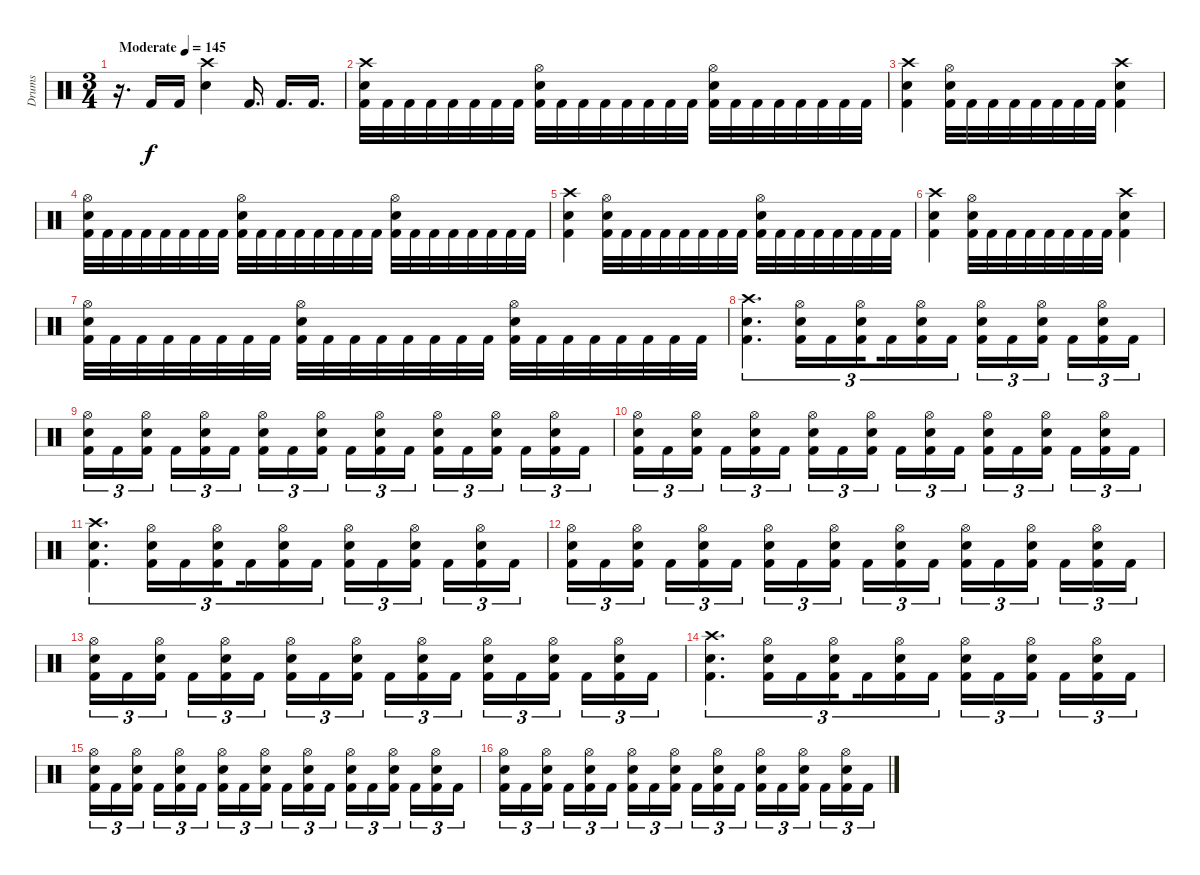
\track ("Drums" "Drums") {instrument percussion}
\staff {score}
\articulation defaults
\ts (3 4)
\tempo (145 "Moderate")
\clef neutral
\ks c
r.16{d dy f} "Kick (hit) 2".16 "Kick (hit) 2".16 ("Snare (hit) 2" "Crash high (hit)").4 "Kick (hit) 2".16{d} "Kick (hit) 2".16{d} "Kick (hit) 2".16{d} |
("Kick (hit) 2" "Crash high (hit)" "Snare (hit) 2").32 "Kick (hit) 2".32 "Kick (hit) 2".32 "Kick (hit) 2".32 "Kick (hit) 2".32 "Kick (hit) 2".32 "Kick (hit) 2".32 "Kick (hit) 2".32 ("Kick (hit) 2" "Snare (hit) 2" "Hi-Hat (open)").32 "Kick (hit) 2".32 "Kick (hit) 2".32 "Kick (hit) 2".32 "Kick (hit) 2".32 "Kick (hit) 2".32 "Kick (hit) 2".32 "Kick (hit) 2".32 ("Kick (hit) 2" "Snare (hit) 2" "Hi-Hat (open)").32 "Kick (hit) 2".32 "Kick (hit) 2".32 "Kick (hit) 2".32 "Kick (hit) 2".32 "Kick (hit) 2".32 "Kick (hit) 2".32 "Kick (hit) 2".32 |
("Kick (hit) 2" "Crash high (hit)" "Snare (hit) 2").4 ("Kick (hit) 2" "Snare (hit) 2" "Hi-Hat (open)").32 "Kick (hit) 2".32 "Kick (hit) 2".32 "Kick (hit) 2".32 "Kick (hit) 2".32 "Kick (hit) 2".32 "Kick (hit) 2".32 "Kick (hit) 2".32 ("Kick (hit) 2" "Crash high (hit)" "Snare (hit) 2").4 |
("Kick (hit) 2" "Hi-Hat (open)" "Snare (hit) 2").32 "Kick (hit) 2".32 "Kick (hit) 2".32 "Kick (hit) 2".32 "Kick (hit) 2".32 "Kick (hit) 2".32 "Kick (hit) 2".32 "Kick (hit) 2".32 ("Kick (hit) 2" "Snare (hit) 2" "Hi-Hat (open)").32 "Kick (hit) 2".32 "Kick (hit) 2".32 "Kick (hit) 2".32 "Kick (hit) 2".32 "Kick (hit) 2".32 "Kick (hit) 2".32 "Kick (hit) 2".32 ("Kick (hit) 2" "Snare (hit) 2" "Hi-Hat (open)").32 "Kick (hit) 2".32 "Kick (hit) 2".32 "Kick (hit) 2".32 "Kick (hit) 2".32 "Kick (hit) 2".32 "Kick (hit) 2".32 "Kick (hit) 2".32 |
("Kick (hit) 2" "Crash high (hit)" "Snare (hit) 2").4 ("Kick (hit) 2" "Snare (hit) 2" "Hi-Hat (open)").32 "Kick (hit) 2".32 "Kick (hit) 2".32 "Kick (hit) 2".32 "Kick (hit) 2".32 "Kick (hit) 2".32 "Kick (hit) 2".32 "Kick (hit) 2".32 ("Kick (hit) 2" "Snare (hit) 2" "Hi-Hat (open)").32 "Kick (hit) 2".32 "Kick (hit) 2".32 "Kick (hit) 2".32 "Kick (hit) 2".32 "Kick (hit) 2".32 "Kick (hit) 2".32 "Kick (hit) 2".32 |
("Kick (hit) 2" "Crash high (hit)" "Snare (hit) 2").4 ("Kick (hit) 2" "Snare (hit) 2" "Hi-Hat (open)").32 "Kick (hit) 2".32 "Kick (hit) 2".32 "Kick (hit) 2".32 "Kick (hit) 2".32 "Kick (hit) 2".32 "Kick (hit) 2".32 "Kick (hit) 2".32 ("Kick (hit) 2" "Crash high (hit)" "Snare (hit) 2").4 |
("Kick (hit) 2" "Hi-Hat (open)" "Snare (hit) 2").32 "Kick (hit) 2".32 "Kick (hit) 2".32 "Kick (hit) 2".32 "Kick (hit) 2".32 "Kick (hit) 2".32 "Kick (hit) 2".32 "Kick (hit) 2".32 ("Kick (hit) 2" "Snare (hit) 2" "Hi-Hat (open)").32 "Kick (hit) 2".32 "Kick (hit) 2".32 "Kick (hit) 2".32 "Kick (hit) 2".32 "Kick (hit) 2".32 "Kick (hit) 2".32 "Kick (hit) 2".32 ("Kick (hit) 2" "Snare (hit) 2" "Hi-Hat (open)").32 "Kick (hit) 2".32 "Kick (hit) 2".32 "Kick (hit) 2".32 "Kick (hit) 2".32 "Kick (hit) 2".32 "Kick (hit) 2".32 "Kick (hit) 2".32 |
("Kick (hit) 2" "Crash high (hit)" "Snare (hit) 2").4{d tu (3 2)} ("Kick (hit) 2" "Snare (hit) 2" "Hi-Hat (open)").16{tu (3 2)} "Kick (hit) 2".16{tu (3 2)} ("Kick (hit) 2" "Snare (hit) 2" "Hi-Hat (open)").16{tu (3 2) beam splitsecondary} "Kick (hit) 2".16{tu (3 2)} ("Kick (hit) 2" "Snare (hit) 2" "Hi-Hat (open)").16{tu (3 2)} "Kick (hit) 2".16{tu (3 2)} ("Kick (hit) 2" "Snare (hit) 2" "Hi-Hat (open)").16{tu (3 2)} "Kick (hit) 2".16{tu (3 2)} ("Kick (hit) 2" "Snare (hit) 2" "Hi-Hat (open)").16{tu (3 2) beam splitsecondary} "Kick (hit) 2".16{tu (3 2)} ("Kick (hit) 2" "Snare (hit) 2" "Hi-Hat (open)").16{tu (3 2)} "Kick (hit) 2".16{tu (3 2)} |
("Kick (hit) 2" "Snare (hit) 2" "Hi-Hat (open)").16{tu (3 2)} "Kick (hit) 2".16{tu (3 2)} ("Kick (hit) 2" "Snare (hit) 2" "Hi-Hat (open)").16{tu (3 2) beam splitsecondary} "Kick (hit) 2".16{tu (3 2)} ("Kick (hit) 2" "Snare (hit) 2" "Hi-Hat (open)").16{tu (3 2)} "Kick (hit) 2".16{tu (3 2)} ("Kick (hit) 2" "Snare (hit) 2" "Hi-Hat (open)").16{tu (3 2)} "Kick (hit) 2".16{tu (3 2)} ("Kick (hit) 2" "Snare (hit) 2" "Hi-Hat (open)").16{tu (3 2) beam splitsecondary} "Kick (hit) 2".16{tu (3 2)} ("Kick (hit) 2" "Snare (hit) 2" "Hi-Hat (open)").16{tu (3 2)} "Kick (hit) 2".16{tu (3 2)} ("Kick (hit) 2" "Snare (hit) 2" "Hi-Hat (open)").16{tu (3 2)} "Kick (hit) 2".16{tu (3 2)} ("Kick (hit) 2" "Snare (hit) 2" "Hi-Hat (open)").16{tu (3 2) beam splitsecondary} "Kick (hit) 2".16{tu (3 2)} ("Kick (hit) 2" "Snare (hit) 2" "Hi-Hat (open)").16{tu (3 2)} "Kick (hit) 2".16{tu (3 2)} |
("Kick (hit) 2" "Snare (hit) 2" "Hi-Hat (open)").16{tu (3 2)} "Kick (hit) 2".16{tu (3 2)} ("Kick (hit) 2" "Snare (hit) 2" "Hi-Hat (open)").16{tu (3 2) beam splitsecondary} "Kick (hit) 2".16{tu (3 2)} ("Kick (hit) 2" "Snare (hit) 2" "Hi-Hat (open)").16{tu (3 2)} "Kick (hit) 2".16{tu (3 2)} ("Kick (hit) 2" "Snare (hit) 2" "Hi-Hat (open)").16{tu (3 2)} "Kick (hit) 2".16{tu (3 2)} ("Kick (hit) 2" "Snare (hit) 2" "Hi-Hat (open)").16{tu (3 2) beam splitsecondary} "Kick (hit) 2".16{tu (3 2)} ("Kick (hit) 2" "Snare (hit) 2" "Hi-Hat (open)").16{tu (3 2)} "Kick (hit) 2".16{tu (3 2)} ("Kick (hit) 2" "Snare (hit) 2" "Hi-Hat (open)").16{tu (3 2)} "Kick (hit) 2".16{tu (3 2)} ("Kick (hit) 2" "Snare (hit) 2" "Hi-Hat (open)").16{tu (3 2) beam splitsecondary} "Kick (hit) 2".16{tu (3 2)} ("Kick (hit) 2" "Snare (hit) 2" "Hi-Hat (open)").16{tu (3 2)} "Kick (hit) 2".16{tu (3 2)} |
("Kick (hit) 2" "Crash high (hit)" "Snare (hit) 2").4{d tu (3 2)} ("Kick (hit) 2" "Snare (hit) 2" "Hi-Hat (open)").16{tu (3 2)} "Kick (hit) 2".16{tu (3 2)} ("Kick (hit) 2" "Snare (hit) 2" "Hi-Hat (open)").16{tu (3 2) beam splitsecondary} "Kick (hit) 2".16{tu (3 2)} ("Kick (hit) 2" "Snare (hit) 2" "Hi-Hat (open)").16{tu (3 2)} "Kick (hit) 2".16{tu (3 2)} ("Kick (hit) 2" "Snare (hit) 2" "Hi-Hat (open)").16{tu (3 2)} "Kick (hit) 2".16{tu (3 2)} ("Kick (hit) 2" "Snare (hit) 2" "Hi-Hat (open)").16{tu (3 2) beam splitsecondary} "Kick (hit) 2".16{tu (3 2)} ("Kick (hit) 2" "Snare (hit) 2" "Hi-Hat (open)").16{tu (3 2)} "Kick (hit) 2".16{tu (3 2)} |
("Kick (hit) 2" "Snare (hit) 2" "Hi-Hat (open)").16{tu (3 2)} "Kick (hit) 2".16{tu (3 2)} ("Kick (hit) 2" "Snare (hit) 2" "Hi-Hat (open)").16{tu (3 2) beam splitsecondary} "Kick (hit) 2".16{tu (3 2)} ("Kick (hit) 2" "Snare (hit) 2" "Hi-Hat (open)").16{tu (3 2)} "Kick (hit) 2".16{tu (3 2)} ("Kick (hit) 2" "Snare (hit) 2" "Hi-Hat (open)").16{tu (3 2)} "Kick (hit) 2".16{tu (3 2)} ("Kick (hit) 2" "Snare (hit) 2" "Hi-Hat (open)").16{tu (3 2) beam splitsecondary} "Kick (hit) 2".16{tu (3 2)} ("Kick (hit) 2" "Snare (hit) 2" "Hi-Hat (open)").16{tu (3 2)} "Kick (hit) 2".16{tu (3 2)} ("Kick (hit) 2" "Snare (hit) 2" "Hi-Hat (open)").16{tu (3 2)} "Kick (hit) 2".16{tu (3 2)} ("Kick (hit) 2" "Snare (hit) 2" "Hi-Hat (open)").16{tu (3 2) beam splitsecondary} "Kick (hit) 2".16{tu (3 2)} ("Kick (hit) 2" "Snare (hit) 2" "Hi-Hat (open)").16{tu (3 2)} "Kick (hit) 2".16{tu (3 2)} |
("Kick (hit) 2" "Snare (hit) 2" "Hi-Hat (open)").16{tu (3 2)} "Kick (hit) 2".16{tu (3 2)} ("Kick (hit) 2" "Snare (hit) 2" "Hi-Hat (open)").16{tu (3 2) beam splitsecondary} "Kick (hit) 2".16{tu (3 2)} ("Kick (hit) 2" "Snare (hit) 2" "Hi-Hat (open)").16{tu (3 2)} "Kick (hit) 2".16{tu (3 2)} ("Kick (hit) 2" "Snare (hit) 2" "Hi-Hat (open)").16{tu (3 2)} "Kick (hit) 2".16{tu (3 2)} ("Kick (hit) 2" "Snare (hit) 2" "Hi-Hat (open)").16{tu (3 2) beam splitsecondary} "Kick (hit) 2".16{tu (3 2)} ("Kick (hit) 2" "Snare (hit) 2" "Hi-Hat (open)").16{tu (3 2)} "Kick (hit) 2".16{tu (3 2)} ("Kick (hit) 2" "Snare (hit) 2" "Hi-Hat (open)").16{tu (3 2)} "Kick (hit) 2".16{tu (3 2)} ("Kick (hit) 2" "Snare (hit) 2" "Hi-Hat (open)").16{tu (3 2) beam splitsecondary} "Kick (hit) 2".16{tu (3 2)} ("Kick (hit) 2" "Snare (hit) 2" "Hi-Hat (open)").16{tu (3 2)} "Kick (hit) 2".16{tu (3 2)} |
("Kick (hit) 2" "Crash high (hit)" "Snare (hit) 2").4{d tu (3 2)} ("Kick (hit) 2" "Snare (hit) 2" "Hi-Hat (open)").16{tu (3 2)} "Kick (hit) 2".16{tu (3 2)} ("Kick (hit) 2" "Snare (hit) 2" "Hi-Hat (open)").16{tu (3 2) beam splitsecondary} "Kick (hit) 2".16{tu (3 2)} ("Kick (hit) 2" "Snare (hit) 2" "Hi-Hat (open)").16{tu (3 2)} "Kick (hit) 2".16{tu (3 2)} ("Kick (hit) 2" "Snare (hit) 2" "Hi-Hat (open)").16{tu (3 2)} "Kick (hit) 2".16{tu (3 2)} ("Kick (hit) 2" "Snare (hit) 2" "Hi-Hat (open)").16{tu (3 2) beam splitsecondary} "Kick (hit) 2".16{tu (3 2)} ("Kick (hit) 2" "Snare (hit) 2" "Hi-Hat (open)").16{tu (3 2)} "Kick (hit) 2".16{tu (3 2)} |
("Kick (hit) 2" "Snare (hit) 2" "Hi-Hat (open)").16{tu (3 2)} "Kick (hit) 2".16{tu (3 2)} ("Kick (hit) 2" "Snare (hit) 2" "Hi-Hat (open)").16{tu (3 2) beam splitsecondary} "Kick (hit) 2".16{tu (3 2)} ("Kick (hit) 2" "Snare (hit) 2" "Hi-Hat (open)").16{tu (3 2)} "Kick (hit) 2".16{tu (3 2)} ("Kick (hit) 2" "Snare (hit) 2" "Hi-Hat (open)").16{tu (3 2)} "Kick (hit) 2".16{tu (3 2)} ("Kick (hit) 2" "Snare (hit) 2" "Hi-Hat (open)").16{tu (3 2) beam splitsecondary} "Kick (hit) 2".16{tu (3 2)} ("Kick (hit) 2" "Snare (hit) 2" "Hi-Hat (open)").16{tu (3 2)} "Kick (hit) 2".16{tu (3 2)} ("Kick (hit) 2" "Snare (hit) 2" "Hi-Hat (open)").16{tu (3 2)} "Kick (hit) 2".16{tu (3 2)} ("Kick (hit) 2" "Snare (hit) 2" "Hi-Hat (open)").16{tu (3 2) beam splitsecondary} "Kick (hit) 2".16{tu (3 2)} ("Kick (hit) 2" "Snare (hit) 2" "Hi-Hat (open)").16{tu (3 2)} "Kick (hit) 2".16{tu (3 2)} |
("Kick (hit) 2" "Snare (hit) 2" "Hi-Hat (open)").16{tu (3 2)} "Kick (hit) 2".16{tu (3 2)} ("Kick (hit) 2" "Snare (hit) 2" "Hi-Hat (open)").16{tu (3 2) beam splitsecondary} "Kick (hit) 2".16{tu (3 2)} ("Kick (hit) 2" "Snare (hit) 2" "Hi-Hat (open)").16{tu (3 2)} "Kick (hit) 2".16{tu (3 2)} ("Kick (hit) 2" "Snare (hit) 2" "Hi-Hat (open)").16{tu (3 2)} "Kick (hit) 2".16{tu (3 2)} ("Kick (hit) 2" "Snare (hit) 2" "Hi-Hat (open)").16{tu (3 2) beam splitsecondary} "Kick (hit) 2".16{tu (3 2)} ("Kick (hit) 2" "Snare (hit) 2" "Hi-Hat (open)").16{tu (3 2)} "Kick (hit) 2".16{tu (3 2)} ("Kick (hit) 2" "Snare (hit) 2" "Hi-Hat (open)").16{tu (3 2)} "Kick (hit) 2".16{tu (3 2)} ("Kick (hit) 2" "Snare (hit) 2" "Hi-Hat (open)").16{tu (3 2) beam splitsecondary} "Kick (hit) 2".16{tu (3 2)} ("Kick (hit) 2" "Snare (hit) 2" "Hi-Hat (open)").16{tu (3 2)} "Kick (hit) 2".16{tu (3 2)}
